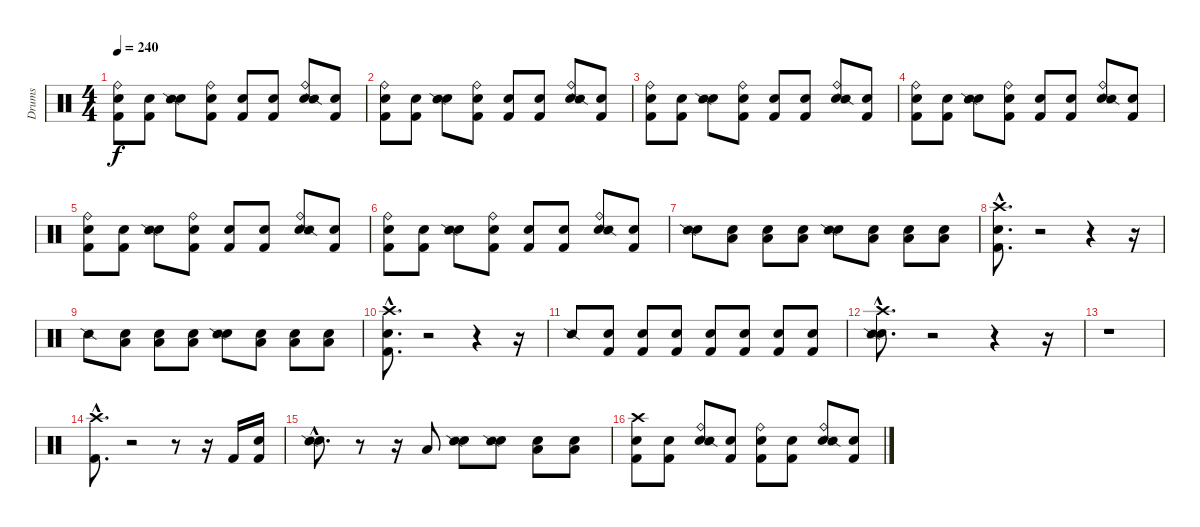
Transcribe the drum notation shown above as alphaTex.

\track ("Drums" "Drums") {instrument percussion}
\staff {score}
\articulation defaults
\ts (4 4)
\tempo 240
\clef neutral
\ks c
("Snare (hit)" "Kick (hit) 2" "Ride (bell)").8{dy f} ("Snare (hit)" "Kick (hit) 2").8 ("Snare (hit)" "Snare (side stick) 2").8 ("Snare (hit)" "Kick (hit) 2" "Ride (bell)").8 ("Snare (hit)" "Kick (hit) 2").8 ("Snare (hit)" "Kick (hit) 2").8 ("Snare (hit)" "Ride (bell)" "Snare (side stick) 2").8 ("Snare (hit)" "Kick (hit) 2").8 |
("Snare (hit)" "Kick (hit) 2" "Ride (bell)").8 ("Snare (hit)" "Kick (hit) 2").8 ("Snare (hit)" "Snare (side stick) 2").8 ("Snare (hit)" "Kick (hit) 2" "Ride (bell)").8 ("Snare (hit)" "Kick (hit) 2").8 ("Snare (hit)" "Kick (hit) 2").8 ("Snare (hit)" "Ride (bell)" "Snare (side stick) 2").8 ("Snare (hit)" "Kick (hit) 2").8 |
("Snare (hit)" "Kick (hit) 2" "Ride (bell)").8 ("Snare (hit)" "Kick (hit) 2").8 ("Snare (hit)" "Snare (side stick) 2").8 ("Snare (hit)" "Kick (hit) 2" "Ride (bell)").8 ("Snare (hit)" "Kick (hit) 2").8 ("Snare (hit)" "Kick (hit) 2").8 ("Snare (hit)" "Ride (bell)" "Snare (side stick) 2").8 ("Snare (hit)" "Kick (hit) 2").8 |
("Snare (hit)" "Kick (hit) 2" "Ride (bell)").8 ("Snare (hit)" "Kick (hit) 2").8 ("Snare (hit)" "Snare (side stick) 2").8 ("Snare (hit)" "Kick (hit) 2" "Ride (bell)").8 ("Snare (hit)" "Kick (hit) 2").8 ("Snare (hit)" "Kick (hit) 2").8 ("Snare (hit)" "Ride (bell)" "Snare (side stick) 2").8 ("Snare (hit)" "Kick (hit) 2").8 |
("Snare (hit)" "Kick (hit) 2" "Ride (bell)").8 ("Snare (hit)" "Kick (hit) 2").8 ("Snare (hit)" "Snare (side stick) 2").8 ("Snare (hit)" "Kick (hit) 2" "Ride (bell)").8 ("Snare (hit)" "Kick (hit) 2").8 ("Snare (hit)" "Kick (hit) 2").8 ("Snare (hit)" "Ride (bell)" "Snare (side stick) 2").8 ("Snare (hit)" "Kick (hit) 2").8 |
("Snare (hit)" "Kick (hit) 2" "Ride (bell)").8 ("Snare (hit)" "Kick (hit) 2").8 ("Snare (hit)" "Snare (side stick) 2").8 ("Snare (hit)" "Kick (hit) 2" "Ride (bell)").8 ("Snare (hit)" "Kick (hit) 2").8 ("Snare (hit)" "Kick (hit) 2").8 ("Snare (hit)" "Ride (bell)" "Snare (side stick) 2").8 ("Snare (hit)" "Kick (hit) 2").8 |
("Snare (hit)" "Snare (side stick) 2").8 ("Snare (hit)" "Low Tom (hit)").8 ("Snare (hit)" "Low Tom (hit)").8 ("Snare (hit)" "Low Tom (hit)").8 ("Snare (hit)" "Snare (side stick) 2").8 ("Snare (hit)" "Low Tom (hit)").8 ("Snare (hit)" "Low Tom (hit)").8 ("Snare (hit)" "Low Tom (hit)").8 |
("Snare (hit)"{hac} "Kick (hit) 2"{hac} "Crash high (hit)"{hac}).8{d} r.2 r.4 r.16 |
"Snare (side stick) 2".8 ("Snare (hit)" "Low Tom (hit)").8 ("Snare (hit)" "Low Tom (hit)").8 ("Snare (hit)" "Low Tom (hit)").8 ("Snare (hit)" "Snare (side stick) 2").8 ("Snare (hit)" "Low Tom (hit)").8 ("Snare (hit)" "Low Tom (hit)").8 ("Snare (hit)" "Low Tom (hit)").8 |
("Snare (hit)"{hac} "Kick (hit) 2"{hac} "Crash high (hit)"{hac}).8{d} r.2 r.4 r.16 |
"Snare (side stick) 2".8 ("Snare (hit)" "Kick (hit) 2").8 ("Snare (hit)" "Kick (hit) 2").8 ("Snare (hit)" "Kick (hit) 2").8 ("Snare (hit)" "Kick (hit) 2").8 ("Snare (hit)" "Kick (hit) 2").8 ("Snare (hit)" "Kick (hit) 2").8 ("Snare (hit)" "Kick (hit) 2").8 |
("Snare (hit)"{hac} "Snare (side stick) 2"{hac} "Crash high (hit)"{hac}).8{d} r.2 r.4 r.16 |
r.1 |
("Kick (hit) 2"{hac} "Crash high (hit)"{hac}).8{d} r.2 r.8 r.16 "Kick (hit) 2".16 ("Snare (hit)" "Kick (hit) 2").16 |
("Snare (hit)"{hac} "Snare (side stick) 2"{hac}).8{d} r.8 r.16 "Low Tom (hit)".8 ("Snare (hit)" "Snare (side stick) 2").8 ("Snare (hit)" "Snare (side stick) 2").8 ("Snare (hit)" "Low Tom (hit)").8 ("Snare (hit)" "Low Tom (hit)").8 |
("Snare (hit)" "Kick (hit) 2" "Crash high (hit)").8 ("Snare (hit)" "Kick (hit) 2").8 ("Snare (hit)" "Ride (bell)" "Snare (side stick) 2").8 ("Snare (hit)" "Kick (hit) 2").8 ("Snare (hit)" "Kick (hit) 2" "Ride (bell)").8 ("Snare (hit)" "Kick (hit) 2").8 ("Snare (hit)" "Ride (bell)" "Snare (side stick) 2").8 ("Snare (hit)" "Kick (hit) 2").8
